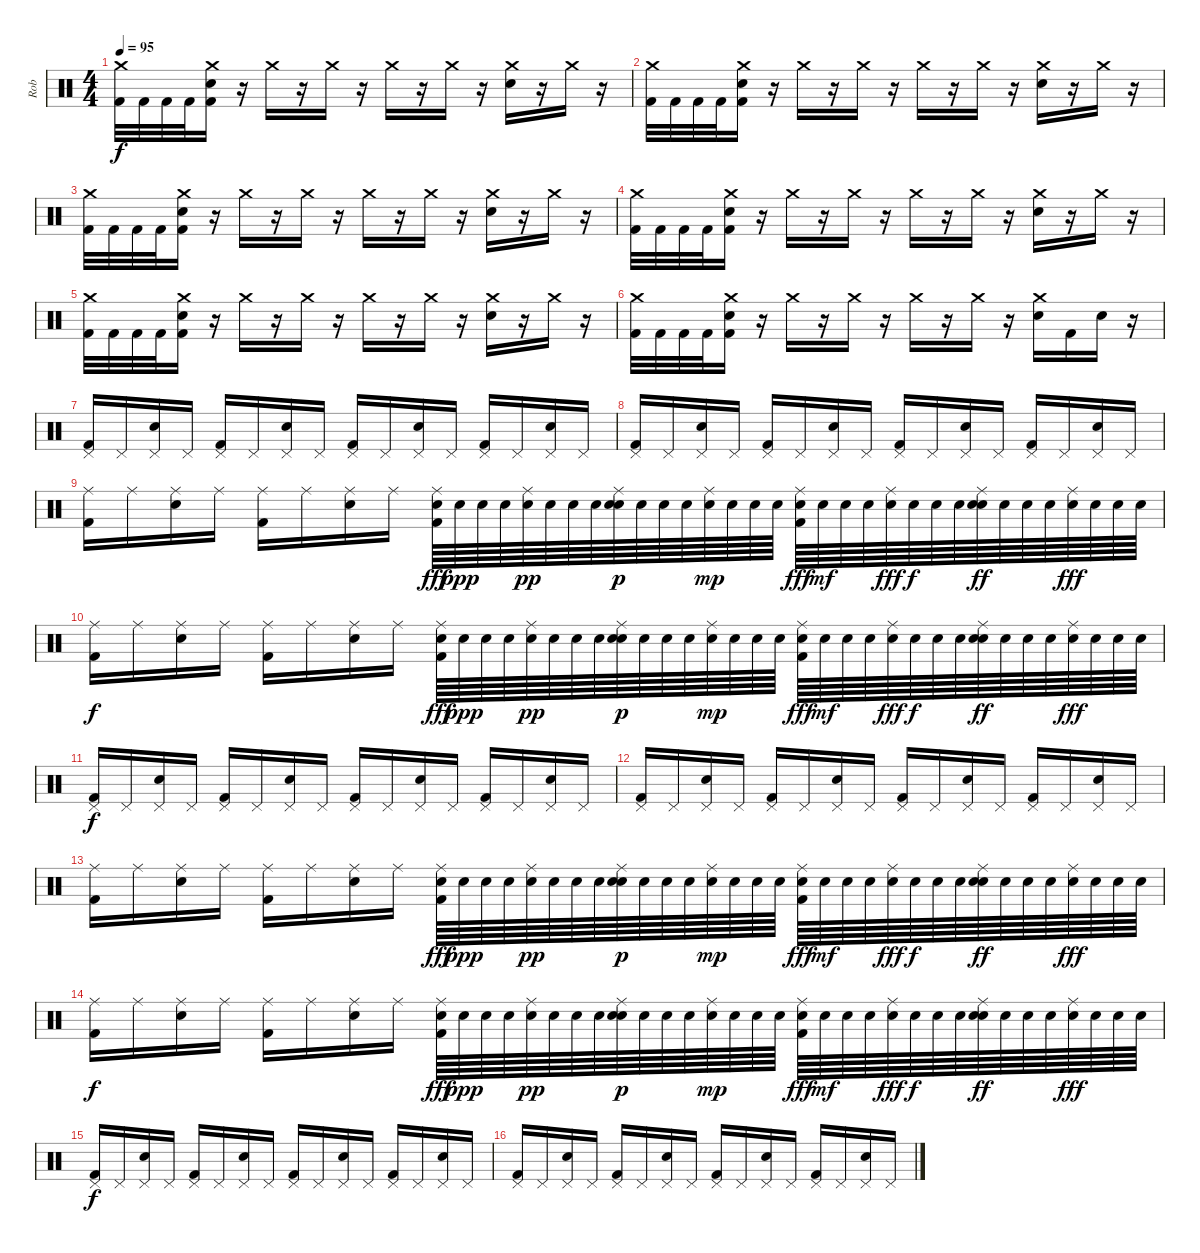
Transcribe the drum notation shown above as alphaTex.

\track ("Rob" "Rob") {instrument percussion}
\staff {score}
\articulation defaults
\ts (4 4)
\tempo 95
\clef neutral
\ks c
("Crash medium (hit)" "Kick (hit) 2").32{dy f} "Kick (hit) 2".32 "Kick (hit) 2".32 "Kick (hit) 2".32 ("Crash medium (hit)" "Electric Snare (hit)" "Kick (hit) 2").16 r.16 "Crash medium (hit)".16 r.16 "Crash medium (hit)".16 r.16 "Crash medium (hit)".16 r.16 "Crash medium (hit)".16 r.16 ("Crash medium (hit)" "Electric Snare (hit)").16 r.16 "Crash medium (hit)".16 r.16 |
("Crash medium (hit)" "Kick (hit) 2").32 "Kick (hit) 2".32 "Kick (hit) 2".32 "Kick (hit) 2".32 ("Crash medium (hit)" "Electric Snare (hit)" "Kick (hit) 2").16 r.16 "Crash medium (hit)".16 r.16 "Crash medium (hit)".16 r.16 "Crash medium (hit)".16 r.16 "Crash medium (hit)".16 r.16 ("Crash medium (hit)" "Electric Snare (hit)").16 r.16 "Crash medium (hit)".16 r.16 |
("Crash medium (hit)" "Kick (hit) 2").32 "Kick (hit) 2".32 "Kick (hit) 2".32 "Kick (hit) 2".32 ("Crash medium (hit)" "Electric Snare (hit)" "Kick (hit) 2").16 r.16 "Crash medium (hit)".16 r.16 "Crash medium (hit)".16 r.16 "Crash medium (hit)".16 r.16 "Crash medium (hit)".16 r.16 ("Crash medium (hit)" "Electric Snare (hit)").16 r.16 "Crash medium (hit)".16 r.16 |
("Crash medium (hit)" "Kick (hit) 2").32 "Kick (hit) 2".32 "Kick (hit) 2".32 "Kick (hit) 2".32 ("Crash medium (hit)" "Electric Snare (hit)" "Kick (hit) 2").16 r.16 "Crash medium (hit)".16 r.16 "Crash medium (hit)".16 r.16 "Crash medium (hit)".16 r.16 "Crash medium (hit)".16 r.16 ("Crash medium (hit)" "Electric Snare (hit)").16 r.16 "Crash medium (hit)".16 r.16 |
("Crash medium (hit)" "Kick (hit) 2").32 "Kick (hit) 2".32 "Kick (hit) 2".32 "Kick (hit) 2".32 ("Crash medium (hit)" "Electric Snare (hit)" "Kick (hit) 2").16 r.16 "Crash medium (hit)".16 r.16 "Crash medium (hit)".16 r.16 "Crash medium (hit)".16 r.16 "Crash medium (hit)".16 r.16 ("Crash medium (hit)" "Electric Snare (hit)").16 r.16 "Crash medium (hit)".16 r.16 |
("Crash medium (hit)" "Kick (hit) 2").32 "Kick (hit) 2".32 "Kick (hit) 2".32 "Kick (hit) 2".32 ("Crash medium (hit)" "Electric Snare (hit)" "Kick (hit) 2").16 r.16 "Crash medium (hit)".16 r.16 "Crash medium (hit)".16 r.16 "Crash medium (hit)".16 r.16 "Crash medium (hit)".16 r.16 ("Crash medium (hit)" "Electric Snare (hit)").16 "Kick (hit) 2".16 "Electric Snare (hit)".16 r.16 |
("Pedal Hi-Hat (hit)" "Kick (hit) 2").16 "Pedal Hi-Hat (hit)".16 ("Pedal Hi-Hat (hit)" "Electric Snare (hit)").16 "Pedal Hi-Hat (hit)".16 ("Pedal Hi-Hat (hit)" "Kick (hit) 2").16 "Pedal Hi-Hat (hit)".16 ("Pedal Hi-Hat (hit)" "Electric Snare (hit)").16 "Pedal Hi-Hat (hit)".16 ("Pedal Hi-Hat (hit)" "Kick (hit) 2").16 "Pedal Hi-Hat (hit)".16 ("Pedal Hi-Hat (hit)" "Electric Snare (hit)").16 "Pedal Hi-Hat (hit)".16 ("Pedal Hi-Hat (hit)" "Kick (hit) 2").16 "Pedal Hi-Hat (hit)".16 ("Pedal Hi-Hat (hit)" "Electric Snare (hit)").16 "Pedal Hi-Hat (hit)".16 |
("Pedal Hi-Hat (hit)" "Kick (hit) 2").16 "Pedal Hi-Hat (hit)".16 ("Pedal Hi-Hat (hit)" "Electric Snare (hit)").16 "Pedal Hi-Hat (hit)".16 ("Pedal Hi-Hat (hit)" "Kick (hit) 2").16 "Pedal Hi-Hat (hit)".16 ("Pedal Hi-Hat (hit)" "Electric Snare (hit)").16 "Pedal Hi-Hat (hit)".16 ("Pedal Hi-Hat (hit)" "Kick (hit) 2").16 "Pedal Hi-Hat (hit)".16 ("Pedal Hi-Hat (hit)" "Electric Snare (hit)").16 "Pedal Hi-Hat (hit)".16 ("Pedal Hi-Hat (hit)" "Kick (hit) 2").16 "Pedal Hi-Hat (hit)".16 ("Pedal Hi-Hat (hit)" "Electric Snare (hit)").16 "Pedal Hi-Hat (hit)".16 |
("Ride (middle)" "Kick (hit) 2").16 "Ride (middle)".16 ("Ride (middle)" "Electric Snare (hit)").16 "Ride (middle)".16 ("Ride (middle)" "Kick (hit) 2").16 "Ride (middle)".16 ("Ride (middle)" "Electric Snare (hit)").16 "Ride (middle)".16 ("Ride (middle)" "Electric Snare (hit)" "Kick (hit) 2").64{dy fff} "Electric Snare (hit)".64{dy ppp} "Electric Snare (hit)".64 "Electric Snare (hit)".64 ("Ride (middle)" "Electric Snare (hit)").64{dy pp} "Electric Snare (hit)".64 "Electric Snare (hit)".64 "Electric Snare (hit)".64 ("Ride (middle)" "Electric Snare (hit)" "Electric Snare (hit)").64{dy p} "Electric Snare (hit)".64 "Electric Snare (hit)".64 "Electric Snare (hit)".64 ("Ride (middle)" "Electric Snare (hit)").64{dy mp} "Electric Snare (hit)".64 "Electric Snare (hit)".64 "Electric Snare (hit)".64 ("Ride (middle)" "Electric Snare (hit)" "Kick (hit) 2").64{dy fff} "Electric Snare (hit)".64{dy mf} "Electric Snare (hit)".64 "Electric Snare (hit)".64 ("Ride (middle)" "Electric Snare (hit)").64{dy fff} "Electric Snare (hit)".64{dy f} "Electric Snare (hit)".64 "Electric Snare (hit)".64 ("Ride (middle)" "Electric Snare (hit)" "Electric Snare (hit)").64{dy ff} "Electric Snare (hit)".64 "Electric Snare (hit)".64 "Electric Snare (hit)".64 ("Ride (middle)" "Electric Snare (hit)").64{dy fff} "Electric Snare (hit)".64 "Electric Snare (hit)".64 "Electric Snare (hit)".64 |
("Ride (middle)" "Kick (hit) 2").16{dy f} "Ride (middle)".16 ("Ride (middle)" "Electric Snare (hit)").16 "Ride (middle)".16 ("Ride (middle)" "Kick (hit) 2").16 "Ride (middle)".16 ("Ride (middle)" "Electric Snare (hit)").16 "Ride (middle)".16 ("Ride (middle)" "Electric Snare (hit)" "Kick (hit) 2").64{dy fff} "Electric Snare (hit)".64{dy ppp} "Electric Snare (hit)".64 "Electric Snare (hit)".64 ("Ride (middle)" "Electric Snare (hit)").64{dy pp} "Electric Snare (hit)".64 "Electric Snare (hit)".64 "Electric Snare (hit)".64 ("Ride (middle)" "Electric Snare (hit)" "Electric Snare (hit)").64{dy p} "Electric Snare (hit)".64 "Electric Snare (hit)".64 "Electric Snare (hit)".64 ("Ride (middle)" "Electric Snare (hit)").64{dy mp} "Electric Snare (hit)".64 "Electric Snare (hit)".64 "Electric Snare (hit)".64 ("Ride (middle)" "Electric Snare (hit)" "Kick (hit) 2").64{dy fff} "Electric Snare (hit)".64{dy mf} "Electric Snare (hit)".64 "Electric Snare (hit)".64 ("Ride (middle)" "Electric Snare (hit)").64{dy fff} "Electric Snare (hit)".64{dy f} "Electric Snare (hit)".64 "Electric Snare (hit)".64 ("Ride (middle)" "Electric Snare (hit)" "Electric Snare (hit)").64{dy ff} "Electric Snare (hit)".64 "Electric Snare (hit)".64 "Electric Snare (hit)".64 ("Ride (middle)" "Electric Snare (hit)").64{dy fff} "Electric Snare (hit)".64 "Electric Snare (hit)".64 "Electric Snare (hit)".64 |
("Pedal Hi-Hat (hit)" "Kick (hit) 2").16{dy f} "Pedal Hi-Hat (hit)".16 ("Pedal Hi-Hat (hit)" "Electric Snare (hit)").16 "Pedal Hi-Hat (hit)".16 ("Pedal Hi-Hat (hit)" "Kick (hit) 2").16 "Pedal Hi-Hat (hit)".16 ("Pedal Hi-Hat (hit)" "Electric Snare (hit)").16 "Pedal Hi-Hat (hit)".16 ("Pedal Hi-Hat (hit)" "Kick (hit) 2").16 "Pedal Hi-Hat (hit)".16 ("Pedal Hi-Hat (hit)" "Electric Snare (hit)").16 "Pedal Hi-Hat (hit)".16 ("Pedal Hi-Hat (hit)" "Kick (hit) 2").16 "Pedal Hi-Hat (hit)".16 ("Pedal Hi-Hat (hit)" "Electric Snare (hit)").16 "Pedal Hi-Hat (hit)".16 |
("Pedal Hi-Hat (hit)" "Kick (hit) 2").16 "Pedal Hi-Hat (hit)".16 ("Pedal Hi-Hat (hit)" "Electric Snare (hit)").16 "Pedal Hi-Hat (hit)".16 ("Pedal Hi-Hat (hit)" "Kick (hit) 2").16 "Pedal Hi-Hat (hit)".16 ("Pedal Hi-Hat (hit)" "Electric Snare (hit)").16 "Pedal Hi-Hat (hit)".16 ("Pedal Hi-Hat (hit)" "Kick (hit) 2").16 "Pedal Hi-Hat (hit)".16 ("Pedal Hi-Hat (hit)" "Electric Snare (hit)").16 "Pedal Hi-Hat (hit)".16 ("Pedal Hi-Hat (hit)" "Kick (hit) 2").16 "Pedal Hi-Hat (hit)".16 ("Pedal Hi-Hat (hit)" "Electric Snare (hit)").16 "Pedal Hi-Hat (hit)".16 |
("Ride (middle)" "Kick (hit) 2").16 "Ride (middle)".16 ("Ride (middle)" "Electric Snare (hit)").16 "Ride (middle)".16 ("Ride (middle)" "Kick (hit) 2").16 "Ride (middle)".16 ("Ride (middle)" "Electric Snare (hit)").16 "Ride (middle)".16 ("Ride (middle)" "Electric Snare (hit)" "Kick (hit) 2").64{dy fff} "Electric Snare (hit)".64{dy ppp} "Electric Snare (hit)".64 "Electric Snare (hit)".64 ("Ride (middle)" "Electric Snare (hit)").64{dy pp} "Electric Snare (hit)".64 "Electric Snare (hit)".64 "Electric Snare (hit)".64 ("Ride (middle)" "Electric Snare (hit)" "Electric Snare (hit)").64{dy p} "Electric Snare (hit)".64 "Electric Snare (hit)".64 "Electric Snare (hit)".64 ("Ride (middle)" "Electric Snare (hit)").64{dy mp} "Electric Snare (hit)".64 "Electric Snare (hit)".64 "Electric Snare (hit)".64 ("Ride (middle)" "Electric Snare (hit)" "Kick (hit) 2").64{dy fff} "Electric Snare (hit)".64{dy mf} "Electric Snare (hit)".64 "Electric Snare (hit)".64 ("Ride (middle)" "Electric Snare (hit)").64{dy fff} "Electric Snare (hit)".64{dy f} "Electric Snare (hit)".64 "Electric Snare (hit)".64 ("Ride (middle)" "Electric Snare (hit)" "Electric Snare (hit)").64{dy ff} "Electric Snare (hit)".64 "Electric Snare (hit)".64 "Electric Snare (hit)".64 ("Ride (middle)" "Electric Snare (hit)").64{dy fff} "Electric Snare (hit)".64 "Electric Snare (hit)".64 "Electric Snare (hit)".64 |
("Ride (middle)" "Kick (hit) 2").16{dy f} "Ride (middle)".16 ("Ride (middle)" "Electric Snare (hit)").16 "Ride (middle)".16 ("Ride (middle)" "Kick (hit) 2").16 "Ride (middle)".16 ("Ride (middle)" "Electric Snare (hit)").16 "Ride (middle)".16 ("Ride (middle)" "Electric Snare (hit)" "Kick (hit) 2").64{dy fff} "Electric Snare (hit)".64{dy ppp} "Electric Snare (hit)".64 "Electric Snare (hit)".64 ("Ride (middle)" "Electric Snare (hit)").64{dy pp} "Electric Snare (hit)".64 "Electric Snare (hit)".64 "Electric Snare (hit)".64 ("Ride (middle)" "Electric Snare (hit)" "Electric Snare (hit)").64{dy p} "Electric Snare (hit)".64 "Electric Snare (hit)".64 "Electric Snare (hit)".64 ("Ride (middle)" "Electric Snare (hit)").64{dy mp} "Electric Snare (hit)".64 "Electric Snare (hit)".64 "Electric Snare (hit)".64 ("Ride (middle)" "Electric Snare (hit)" "Kick (hit) 2").64{dy fff} "Electric Snare (hit)".64{dy mf} "Electric Snare (hit)".64 "Electric Snare (hit)".64 ("Ride (middle)" "Electric Snare (hit)").64{dy fff} "Electric Snare (hit)".64{dy f} "Electric Snare (hit)".64 "Electric Snare (hit)".64 ("Ride (middle)" "Electric Snare (hit)" "Electric Snare (hit)").64{dy ff} "Electric Snare (hit)".64 "Electric Snare (hit)".64 "Electric Snare (hit)".64 ("Ride (middle)" "Electric Snare (hit)").64{dy fff} "Electric Snare (hit)".64 "Electric Snare (hit)".64 "Electric Snare (hit)".64 |
("Pedal Hi-Hat (hit)" "Kick (hit) 2").16{dy f} "Pedal Hi-Hat (hit)".16 ("Pedal Hi-Hat (hit)" "Electric Snare (hit)").16 "Pedal Hi-Hat (hit)".16 ("Pedal Hi-Hat (hit)" "Kick (hit) 2").16 "Pedal Hi-Hat (hit)".16 ("Pedal Hi-Hat (hit)" "Electric Snare (hit)").16 "Pedal Hi-Hat (hit)".16 ("Pedal Hi-Hat (hit)" "Kick (hit) 2").16 "Pedal Hi-Hat (hit)".16 ("Pedal Hi-Hat (hit)" "Electric Snare (hit)").16 "Pedal Hi-Hat (hit)".16 ("Pedal Hi-Hat (hit)" "Kick (hit) 2").16 "Pedal Hi-Hat (hit)".16 ("Pedal Hi-Hat (hit)" "Electric Snare (hit)").16 "Pedal Hi-Hat (hit)".16 |
("Pedal Hi-Hat (hit)" "Kick (hit) 2").16 "Pedal Hi-Hat (hit)".16 ("Pedal Hi-Hat (hit)" "Electric Snare (hit)").16 "Pedal Hi-Hat (hit)".16 ("Pedal Hi-Hat (hit)" "Kick (hit) 2").16 "Pedal Hi-Hat (hit)".16 ("Pedal Hi-Hat (hit)" "Electric Snare (hit)").16 "Pedal Hi-Hat (hit)".16 ("Pedal Hi-Hat (hit)" "Kick (hit) 2").16 "Pedal Hi-Hat (hit)".16 ("Pedal Hi-Hat (hit)" "Electric Snare (hit)").16 "Pedal Hi-Hat (hit)".16 ("Pedal Hi-Hat (hit)" "Kick (hit) 2").16 "Pedal Hi-Hat (hit)".16 ("Pedal Hi-Hat (hit)" "Electric Snare (hit)").16 "Pedal Hi-Hat (hit)".16
